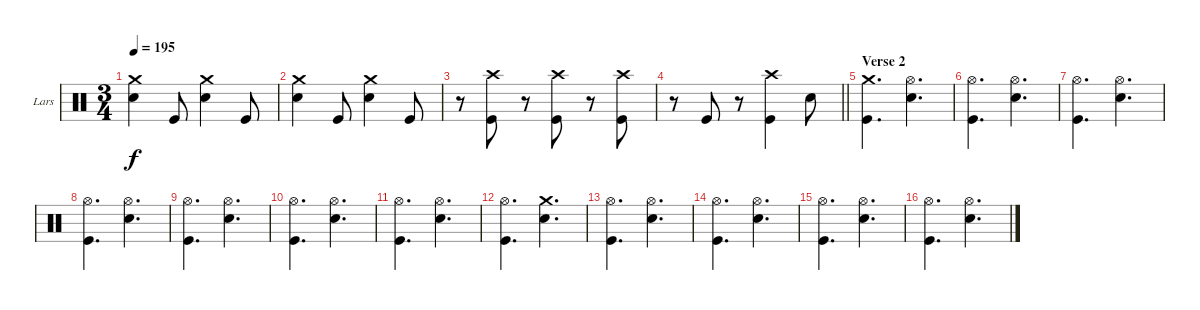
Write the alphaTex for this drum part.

\bracketExtendMode groupsimilarinstruments
\firstSystemTrackNameOrientation horizontal
\otherSystemsTrackNameOrientation horizontal
\track ("Drumkit" "Lars") {instrument percussion}
\staff {score}
\articulation defaults
\ts (3 4)
\tempo 195
\clef neutral
\ks c
("Crash medium (hit)" "Snare (hit) 2").4{dy f} "Kick (hit)".8 ("Crash medium (hit)" "Snare (hit) 2").4 "Kick (hit)".8 |
("Crash medium (hit)" "Snare (hit) 2").4 "Kick (hit)".8 ("Crash medium (hit)" "Snare (hit) 2").4 "Kick (hit)".8 |
r.8 ("Crash high (hit)" "Kick (hit)").8 r.8 ("Crash high (hit)" "Kick (hit)").8 r.8 ("Crash high (hit)" "Kick (hit)").8 |
\barLineRight lightlight
r.8 "Kick (hit)".8 r.8 ("Crash high (hit)" "Kick (hit)").4 "Snare (hit) 2".8 |
\section ("" "Verse 2")
("Crash medium (hit)" "Kick (hit)").4{d} ("Hi-Hat (open)" "Snare (hit) 2").4{d} |
("Hi-Hat (open)" "Kick (hit)").4{d} ("Hi-Hat (open)" "Snare (hit) 2").4{d} |
("Hi-Hat (open)" "Kick (hit)").4{d} ("Hi-Hat (open)" "Snare (hit) 2").4{d} |
("Hi-Hat (open)" "Kick (hit)").4{d} ("Hi-Hat (open)" "Snare (hit) 2").4{d} |
("Hi-Hat (open)" "Kick (hit)").4{d} ("Hi-Hat (open)" "Snare (hit) 2").4{d} |
("Hi-Hat (open)" "Kick (hit)").4{d} ("Hi-Hat (open)" "Snare (hit) 2").4{d} |
("Hi-Hat (open)" "Kick (hit)").4{d} ("Hi-Hat (open)" "Snare (hit) 2").4{d} |
("Hi-Hat (open)" "Kick (hit)").4{d} ("Crash medium (hit)" "Snare (hit) 2").4{d} |
("Hi-Hat (open)" "Kick (hit)").4{d} ("Hi-Hat (open)" "Snare (hit) 2").4{d} |
("Hi-Hat (open)" "Kick (hit)").4{d} ("Hi-Hat (open)" "Snare (hit) 2").4{d} |
("Hi-Hat (open)" "Kick (hit)").4{d} ("Hi-Hat (open)" "Snare (hit) 2").4{d} |
("Hi-Hat (open)" "Kick (hit)").4{d} ("Hi-Hat (open)" "Snare (hit) 2").4{d}
